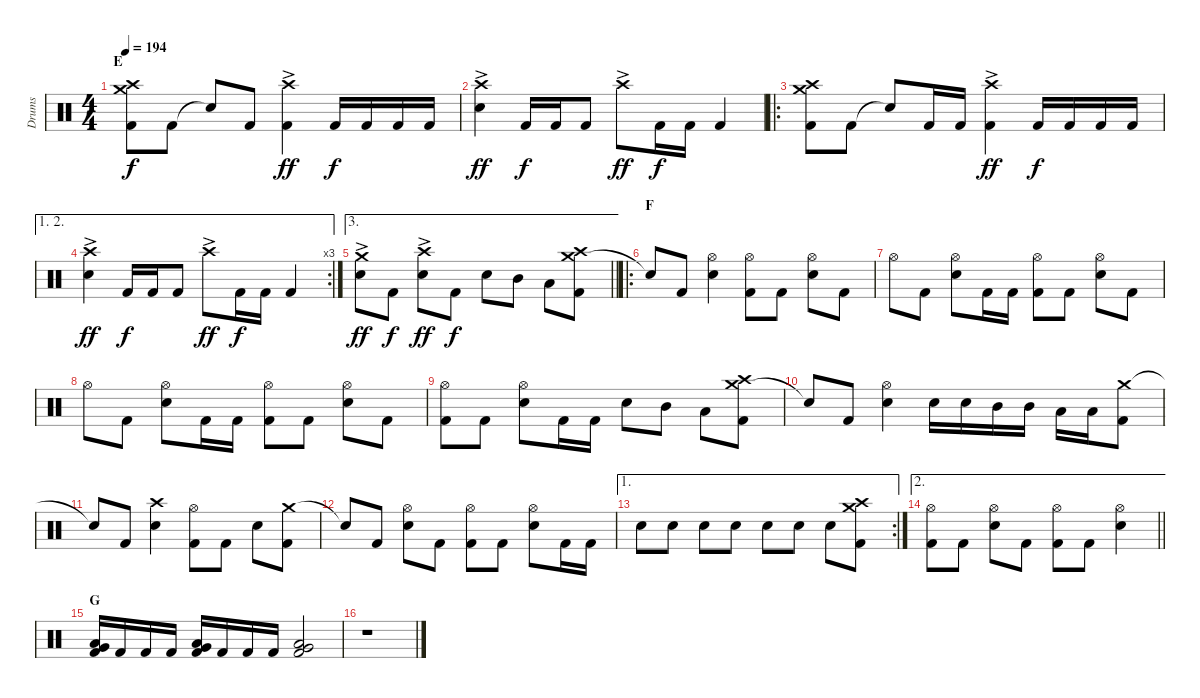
\track ("Drums" "Drums") {instrument percussion}
\staff {score}
\articulation defaults
\ts (4 4)
\section ("" "E")
\tempo 194
\clef neutral
\ks c
("Crash medium (hit)" "Crash high (hit)" "Kick (hit) 2").8{dy f} "Kick (hit) 2".8 "Snare (hit)"{t}.8 "Kick (hit) 2".8 ("Crash high (hit)"{ac} "Kick (hit) 2").4{dy ff} "Kick (hit) 2".16{dy f} "Kick (hit) 2".16 "Kick (hit) 2".16 "Kick (hit) 2".16 |
("Crash high (hit)"{ac} "Electric Snare (hit)").4{dy ff} "Kick (hit) 2".16{dy f} "Kick (hit) 2".16 "Kick (hit) 2".8 "Crash high (hit)"{ac}.8{dy ff} "Kick (hit) 2".16{dy f} "Kick (hit) 2".16 "Kick (hit) 2".4 |
\ro
("Crash medium (hit)" "Crash high (hit)" "Kick (hit) 2").8 "Kick (hit) 2".8 "Snare (hit)"{t}.8 "Kick (hit) 2".16 "Kick (hit) 2".16 ("Crash high (hit)"{ac} "Kick (hit) 2").4{dy ff} "Kick (hit) 2".16{dy f} "Kick (hit) 2".16 "Kick (hit) 2".16 "Kick (hit) 2".16 |
\ae (1 2)
\rc 3
("Crash high (hit)"{ac} "Electric Snare (hit)").4{dy ff} "Kick (hit) 2".16{dy f} "Kick (hit) 2".16 "Kick (hit) 2".8 "Crash high (hit)"{ac}.8{dy ff} "Kick (hit) 2".16{dy f} "Kick (hit) 2".16 "Kick (hit) 2".4 |
\ae 3
\barLineRight lightlight
("Crash medium (hit)"{ac} "Electric Snare (hit)").8{dy ff} "Kick (hit) 2".8{dy f} ("Crash high (hit)"{ac} "Electric Snare (hit)").8{dy ff} "Kick (hit) 2".8{dy f} "Electric Snare (hit)".8 "Mid Tom (hit)".8 "Low Tom (hit)".8 ("Crash medium (hit)" "Crash high (hit)" "Kick (hit) 2").8 |
\ro
\section ("" "F")
"Snare (hit)"{t}.8 "Kick (hit) 2".8 ("Hi-Hat (open)" "Electric Snare (hit)").4 ("Hi-Hat (open)" "Kick (hit) 2").8 "Kick (hit) 2".8 ("Hi-Hat (open)" "Electric Snare (hit)").8 "Kick (hit) 2".8 |
"Hi-Hat (open)".8 "Kick (hit) 2".8 ("Hi-Hat (open)" "Electric Snare (hit)").8 "Kick (hit) 2".16 "Kick (hit) 2".16 ("Hi-Hat (open)" "Kick (hit) 2").8 "Kick (hit) 2".8 ("Hi-Hat (open)" "Electric Snare (hit)").8 "Kick (hit) 2".8 |
"Hi-Hat (open)".8 "Kick (hit) 2".8 ("Hi-Hat (open)" "Electric Snare (hit)").8 "Kick (hit) 2".16 "Kick (hit) 2".16 ("Hi-Hat (open)" "Kick (hit) 2").8 "Kick (hit) 2".8 ("Hi-Hat (open)" "Electric Snare (hit)").8 "Kick (hit) 2".8 |
("Hi-Hat (open)" "Kick (hit) 2").8 "Kick (hit) 2".8 ("Hi-Hat (open)" "Electric Snare (hit)").8 "Kick (hit) 2".16 "Kick (hit) 2".16 "Electric Snare (hit)".8 "Mid Tom (hit)".8 "Low Tom (hit)".8 ("Crash medium (hit)" "Crash high (hit)" "Kick (hit) 2").8 |
"Snare (hit)"{t}.8 "Kick (hit) 2".8 ("Hi-Hat (open)" "Electric Snare (hit)").4 "Electric Snare (hit)".16 "Electric Snare (hit)".16 "Mid Tom (hit)".16 "Mid Tom (hit)".16 "Low Tom (hit)".16 "Low Tom (hit)".16 ("Crash medium (hit)" "Kick (hit) 2").8 |
"Snare (hit)"{t}.8 "Kick (hit) 2".8 ("Crash high (hit)" "Electric Snare (hit)").4 ("Hi-Hat (open)" "Kick (hit) 2").8 "Kick (hit) 2".8 "Electric Snare (hit)".8 ("Crash medium (hit)" "Kick (hit) 2").8 |
"Snare (hit)"{t}.8 "Kick (hit) 2".8 ("Hi-Hat (open)" "Electric Snare (hit)").8 "Kick (hit) 2".8 ("Hi-Hat (open)" "Kick (hit) 2").8 "Kick (hit) 2".8 ("Hi-Hat (open)" "Electric Snare (hit)").8 "Kick (hit) 2".16 "Kick (hit) 2".16 |
\ae 1
\rc 2 "Electric Snare (hit)".8 "Electric Snare (hit)".8 "Electric Snare (hit)".8 "Electric Snare (hit)".8 "Electric Snare (hit)".8 "Electric Snare (hit)".8 "Electric Snare (hit)".8
("Crash medium (hit)" "Crash high (hit)" "Kick (hit) 2").8 |
\ae 2
\barLineRight lightlight
("Hi-Hat (open)" "Kick (hit) 2").8 "Kick (hit) 2".8 ("Hi-Hat (open)" "Electric Snare (hit)").8 "Kick (hit) 2".8 ("Hi-Hat (open)" "Kick (hit) 2").8 "Kick (hit) 2".8 ("Hi-Hat (open)" "Electric Snare (hit)").4 |
\section ("" "G")
("Low Tom (hit)" "Very Low Tom (hit)" "Kick (hit) 2").16 "Kick (hit) 2".16 "Kick (hit) 2".16 "Kick (hit) 2".16 ("Low Tom (hit)" "Very Low Tom (hit)" "Kick (hit) 2").16 "Kick (hit) 2".16 "Kick (hit) 2".16 "Kick (hit) 2".16 ("Very Low Tom (hit)" "Low Floor Tom (hit)" "Kick (hit) 2").2 |
r.1
